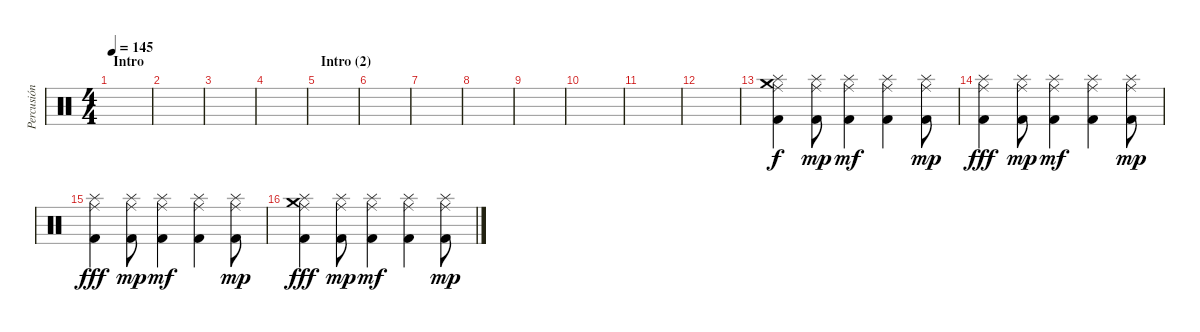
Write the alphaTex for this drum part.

\track ("Percusión" "Percusión") {instrument percussion}
\staff {score}
\articulation defaults
\ts (4 4)
\section ("" "Intro")
\tempo 145
\clef neutral
\ks c
|
|
|
|
\section ("" "Intro (2)")
|
|
|
|
|
|
|
|
("Splash (hit)" "Kick (hit) 2" "Crash medium (hit)" "Ride (middle)").4 ("Splash (hit)" "Kick (hit) 2" "Ride (middle)").8{dy mp} ("Splash (hit)" "Kick (hit) 2" "Ride (middle)").4{dy mf} ("Splash (hit)" "Kick (hit) 2" "Ride (middle)").4 ("Splash (hit)" "Kick (hit) 2" "Ride (middle)").8{dy mp} |
("Splash (hit)" "Kick (hit) 2" "Ride (middle)").4{dy fff} ("Splash (hit)" "Kick (hit) 2" "Ride (middle)").8{dy mp} ("Splash (hit)" "Kick (hit) 2" "Ride (middle)").4{dy mf} ("Splash (hit)" "Kick (hit) 2" "Ride (middle)").4 ("Splash (hit)" "Kick (hit) 2" "Ride (middle)").8{dy mp} |
("Splash (hit)" "Kick (hit) 2" "Ride (middle)").4{dy fff} ("Splash (hit)" "Kick (hit) 2" "Ride (middle)").8{dy mp} ("Splash (hit)" "Kick (hit) 2" "Ride (middle)").4{dy mf} ("Splash (hit)" "Kick (hit) 2" "Ride (middle)").4 ("Splash (hit)" "Kick (hit) 2" "Ride (middle)").8{dy mp} |
("Splash (hit)" "Kick (hit) 2" "Crash medium (hit)" "Ride (middle)").4{dy fff} ("Splash (hit)" "Kick (hit) 2" "Ride (middle)").8{dy mp} ("Splash (hit)" "Kick (hit) 2" "Ride (middle)").4{dy mf} ("Splash (hit)" "Kick (hit) 2" "Ride (middle)").4 ("Splash (hit)" "Kick (hit) 2" "Ride (middle)").8{dy mp}
